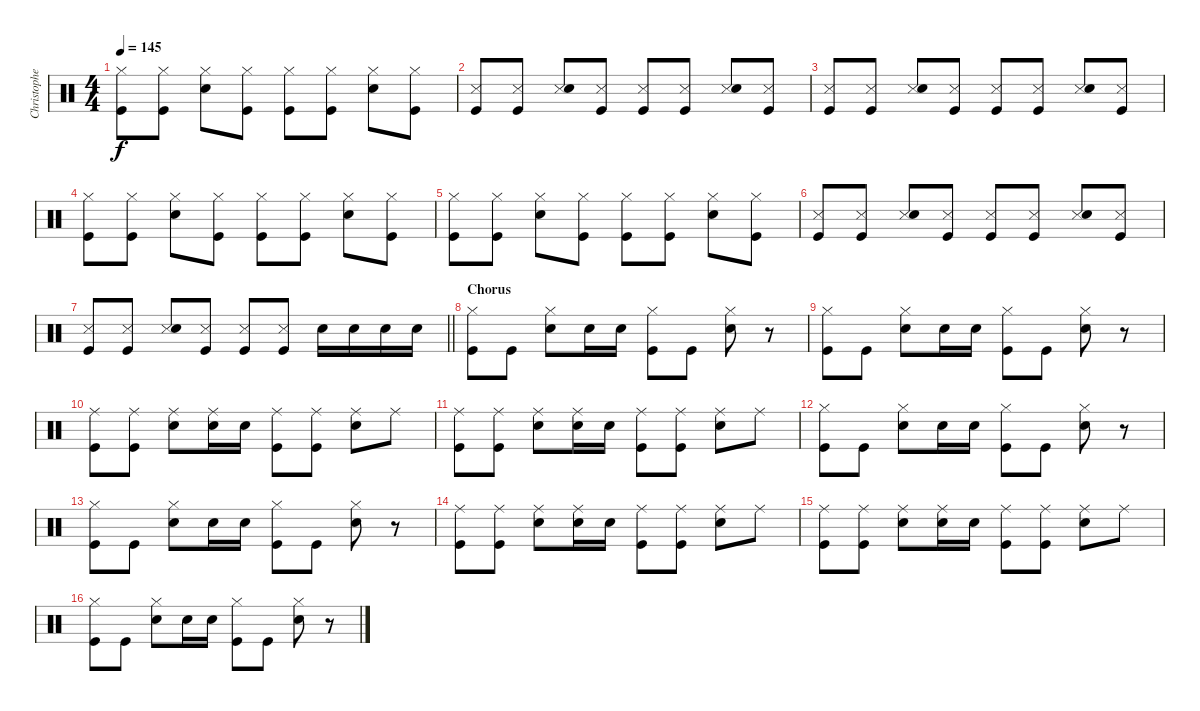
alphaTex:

\track ("Christopher - Drums" "Christophe") {instrument percussion}
\staff {score}
\articulation defaults
\ts (4 4)
\tempo 145
\clef neutral
\ks c
("Hi-Hat (closed)" "Kick (hit)").8{dy f} ("Hi-Hat (closed)" "Kick (hit)").8 ("Hi-Hat (closed)" "Snare (hit) 2").8 ("Hi-Hat (closed)" "Kick (hit)").8 ("Hi-Hat (closed)" "Kick (hit)").8 ("Hi-Hat (closed)" "Kick (hit)").8 ("Hi-Hat (closed)" "Snare (hit) 2").8 ("Hi-Hat (closed)" "Kick (hit)").8 |
("Snare (side stick) 3" "Kick (hit)").8 ("Snare (side stick) 3" "Kick (hit)").8 ("Snare (side stick) 3" "Snare (hit) 2").8 ("Snare (side stick) 3" "Kick (hit)").8 ("Snare (side stick) 3" "Kick (hit)").8 ("Snare (side stick) 3" "Kick (hit)").8 ("Snare (side stick) 3" "Snare (hit) 2").8 ("Snare (side stick) 3" "Kick (hit)").8 |
("Snare (side stick) 3" "Kick (hit)").8 ("Snare (side stick) 3" "Kick (hit)").8 ("Snare (side stick) 3" "Snare (hit) 2").8 ("Snare (side stick) 3" "Kick (hit)").8 ("Snare (side stick) 3" "Kick (hit)").8 ("Snare (side stick) 3" "Kick (hit)").8 ("Snare (side stick) 3" "Snare (hit) 2").8 ("Snare (side stick) 3" "Kick (hit)").8 |
("Hi-Hat (closed)" "Kick (hit)").8 ("Hi-Hat (closed)" "Kick (hit)").8 ("Hi-Hat (closed)" "Snare (hit) 2").8 ("Hi-Hat (closed)" "Kick (hit)").8 ("Hi-Hat (closed)" "Kick (hit)").8 ("Hi-Hat (closed)" "Kick (hit)").8 ("Hi-Hat (closed)" "Snare (hit) 2").8 ("Hi-Hat (closed)" "Kick (hit)").8 |
("Hi-Hat (closed)" "Kick (hit)").8 ("Hi-Hat (closed)" "Kick (hit)").8 ("Hi-Hat (closed)" "Snare (hit) 2").8 ("Hi-Hat (closed)" "Kick (hit)").8 ("Hi-Hat (closed)" "Kick (hit)").8 ("Hi-Hat (closed)" "Kick (hit)").8 ("Hi-Hat (closed)" "Snare (hit) 2").8 ("Hi-Hat (closed)" "Kick (hit)").8 |
("Snare (side stick) 3" "Kick (hit)").8 ("Snare (side stick) 3" "Kick (hit)").8 ("Snare (side stick) 3" "Snare (hit) 2").8 ("Snare (side stick) 3" "Kick (hit)").8 ("Snare (side stick) 3" "Kick (hit)").8 ("Snare (side stick) 3" "Kick (hit)").8 ("Snare (side stick) 3" "Snare (hit) 2").8 ("Snare (side stick) 3" "Kick (hit)").8 |
\barLineRight lightlight
("Snare (side stick) 3" "Kick (hit)").8 ("Snare (side stick) 3" "Kick (hit)").8 ("Snare (side stick) 3" "Snare (hit) 2").8 ("Snare (side stick) 3" "Kick (hit)").8 ("Snare (side stick) 3" "Kick (hit)").8 ("Snare (side stick) 3" "Kick (hit)").8 "Snare (hit) 2".16 "Snare (hit) 2".16 "Snare (hit) 2".16 "Snare (hit) 2".16 |
\section ("" "Chorus")
("Hi-Hat (closed)" "Kick (hit)").8 "Kick (hit)".8 ("Hi-Hat (closed)" "Snare (hit) 2").8 "Snare (hit) 2".16 "Snare (hit) 2".16 ("Hi-Hat (closed)" "Kick (hit)").8 "Kick (hit)".8 ("Hi-Hat (closed)" "Snare (hit) 2").8 r.8 |
("Hi-Hat (closed)" "Kick (hit)").8 "Kick (hit)".8 ("Hi-Hat (closed)" "Snare (hit) 2").8 "Snare (hit) 2".16 "Snare (hit) 2".16 ("Hi-Hat (closed)" "Kick (hit)").8 "Kick (hit)".8 ("Hi-Hat (closed)" "Snare (hit) 2").8 r.8 |
("Ride (middle)" "Kick (hit)").8 ("Ride (middle)" "Kick (hit)").8 ("Ride (middle)" "Snare (hit) 2").8 ("Ride (middle)" "Snare (hit) 2").16 "Snare (hit) 2".16 ("Ride (middle)" "Kick (hit)").8 ("Ride (middle)" "Kick (hit)").8 ("Ride (middle)" "Snare (hit) 2").8 "Ride (middle)".8 |
("Ride (middle)" "Kick (hit)").8 ("Ride (middle)" "Kick (hit)").8 ("Ride (middle)" "Snare (hit) 2").8 ("Ride (middle)" "Snare (hit) 2").16 "Snare (hit) 2".16 ("Ride (middle)" "Kick (hit)").8 ("Ride (middle)" "Kick (hit)").8 ("Ride (middle)" "Snare (hit) 2").8 "Ride (middle)".8 |
("Hi-Hat (closed)" "Kick (hit)").8 "Kick (hit)".8 ("Hi-Hat (closed)" "Snare (hit) 2").8 "Snare (hit) 2".16 "Snare (hit) 2".16 ("Hi-Hat (closed)" "Kick (hit)").8 "Kick (hit)".8 ("Hi-Hat (closed)" "Snare (hit) 2").8 r.8 |
("Hi-Hat (closed)" "Kick (hit)").8 "Kick (hit)".8 ("Hi-Hat (closed)" "Snare (hit) 2").8 "Snare (hit) 2".16 "Snare (hit) 2".16 ("Hi-Hat (closed)" "Kick (hit)").8 "Kick (hit)".8 ("Hi-Hat (closed)" "Snare (hit) 2").8 r.8 |
("Ride (middle)" "Kick (hit)").8 ("Ride (middle)" "Kick (hit)").8 ("Ride (middle)" "Snare (hit) 2").8 ("Ride (middle)" "Snare (hit) 2").16 "Snare (hit) 2".16 ("Ride (middle)" "Kick (hit)").8 ("Ride (middle)" "Kick (hit)").8 ("Ride (middle)" "Snare (hit) 2").8 "Ride (middle)".8 |
("Ride (middle)" "Kick (hit)").8 ("Ride (middle)" "Kick (hit)").8 ("Ride (middle)" "Snare (hit) 2").8 ("Ride (middle)" "Snare (hit) 2").16 "Snare (hit) 2".16 ("Ride (middle)" "Kick (hit)").8 ("Ride (middle)" "Kick (hit)").8 ("Ride (middle)" "Snare (hit) 2").8 "Ride (middle)".8 |
("Hi-Hat (closed)" "Kick (hit)").8 "Kick (hit)".8 ("Hi-Hat (closed)" "Snare (hit) 2").8 "Snare (hit) 2".16 "Snare (hit) 2".16 ("Hi-Hat (closed)" "Kick (hit)").8 "Kick (hit)".8 ("Hi-Hat (closed)" "Snare (hit) 2").8 r.8
